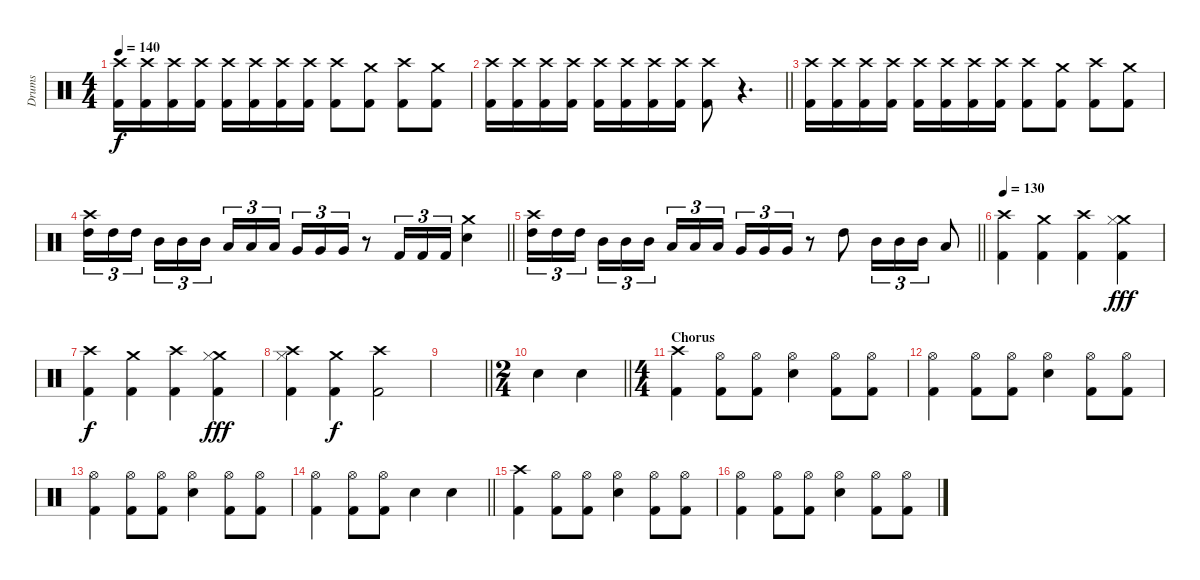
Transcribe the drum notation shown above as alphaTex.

\track ("Drums" "Drums") {instrument percussion}
\staff {score}
\articulation defaults
\ts (4 4)
\tempo 140
\clef neutral
\ks c
("Crash high (hit)" "Kick (hit) 2").16{dy f} ("Crash high (hit)" "Kick (hit) 2").16 ("Crash high (hit)" "Kick (hit) 2").16 ("Crash high (hit)" "Kick (hit) 2").16 ("Crash high (hit)" "Kick (hit) 2").16 ("Crash high (hit)" "Kick (hit) 2").16 ("Crash high (hit)" "Kick (hit) 2").16 ("Crash high (hit)" "Kick (hit) 2").16 ("Crash high (hit)" "Kick (hit) 2").8 ("Crash medium (hit)" "Kick (hit) 2").8 ("Crash high (hit)" "Kick (hit) 2").8 ("Crash medium (hit)" "Kick (hit) 2").8 |
\barLineRight lightlight
("Crash high (hit)" "Kick (hit) 2").16 ("Crash high (hit)" "Kick (hit) 2").16 ("Crash high (hit)" "Kick (hit) 2").16 ("Crash high (hit)" "Kick (hit) 2").16 ("Crash high (hit)" "Kick (hit) 2").16 ("Crash high (hit)" "Kick (hit) 2").16 ("Crash high (hit)" "Kick (hit) 2").16 ("Crash high (hit)" "Kick (hit) 2").16 ("Crash high (hit)" "Kick (hit) 2").8 r.4{d volume 0} |
("Crash high (hit)" "Kick (hit) 2").16{volume 16} ("Crash high (hit)" "Kick (hit) 2").16 ("Crash high (hit)" "Kick (hit) 2").16 ("Crash high (hit)" "Kick (hit) 2").16 ("Crash high (hit)" "Kick (hit) 2").16 ("Crash high (hit)" "Kick (hit) 2").16 ("Crash high (hit)" "Kick (hit) 2").16 ("Crash high (hit)" "Kick (hit) 2").16 ("Crash high (hit)" "Kick (hit) 2").8 ("Crash medium (hit)" "Kick (hit) 2").8 ("Crash high (hit)" "Kick (hit) 2").8 ("Crash medium (hit)" "Kick (hit) 2").8 |
\barLineRight lightlight
("Crash high (hit)" "High Tom (hit)").16{tu (3 2)} "High Tom (hit)".16{tu (3 2)} "High Tom (hit)".16{tu (3 2) beam splitsecondary} "Mid Tom (hit)".16{tu (3 2)} "Mid Tom (hit)".16{tu (3 2)} "Mid Tom (hit)".16{tu (3 2)} "Low Tom (hit)".16{tu (3 2)} "Low Tom (hit)".16{tu (3 2)} "Low Tom (hit)".16{tu (3 2) beam splitsecondary} "Very Low Tom (hit)".16{tu (3 2)} "Very Low Tom (hit)".16{tu (3 2)} "Very Low Tom (hit)".16{tu (3 2)} r.8 "Kick (hit) 2".16{tu (3 2)} "Kick (hit) 2".16{tu (3 2)} "Kick (hit) 2".16{tu (3 2)} ("Crash medium (hit)" "Snare (hit) 2").4 |
\barLineRight lightlight
("Crash high (hit)" "High Tom (hit)").16{tu (3 2)} "High Tom (hit)".16{tu (3 2)} "High Tom (hit)".16{tu (3 2) beam splitsecondary} "Mid Tom (hit)".16{tu (3 2)} "Mid Tom (hit)".16{tu (3 2)} "Mid Tom (hit)".16{tu (3 2)} "Low Tom (hit)".16{tu (3 2)} "Low Tom (hit)".16{tu (3 2)} "Low Tom (hit)".16{tu (3 2) beam splitsecondary} "Very Low Tom (hit)".16{tu (3 2)} "Very Low Tom (hit)".16{tu (3 2)} "Very Low Tom (hit)".16{tu (3 2)} r.8 "High Tom (hit)".8 "Mid Tom (hit)".16{tu (3 2)} "Mid Tom (hit)".16{tu (3 2)} "Mid Tom (hit)".16{tu (3 2)} "Low Tom (hit)".8 |
\tempo 130
("Crash high (hit)" "Kick (hit) 2").4 ("Crash medium (hit)" "Kick (hit) 2").4 ("Crash high (hit)" "Kick (hit) 2").4 ("Crash medium (hit)" "Hi-Hat (closed)" "Kick (hit) 2").4{dy fff} |
("Crash high (hit)" "Kick (hit) 2").4{dy f} ("Crash medium (hit)" "Kick (hit) 2").4 ("Crash high (hit)" "Kick (hit) 2").4 ("Crash medium (hit)" "Hi-Hat (closed)" "Kick (hit) 2").4{dy fff} |
("Crash high (hit)" "Hi-Hat (closed)" "Kick (hit) 2").4 ("Crash medium (hit)" "Kick (hit) 2").4{dy f} ("Crash high (hit)" "Kick (hit) 2").2 |
\barLineRight lightlight
|
\ts (2 4)
\barLineRight lightlight "Snare (hit) 2".4 "Snare (hit) 2".4
|
\ts (4 4)
\section ("" "Chorus")
("Crash high (hit)" "Kick (hit) 2").4 ("Hi-Hat (open)" "Kick (hit) 2").8 ("Hi-Hat (open)" "Kick (hit) 2").8 ("Hi-Hat (open)" "Snare (hit) 2").4 ("Hi-Hat (open)" "Kick (hit) 2").8 ("Hi-Hat (open)" "Kick (hit) 2").8 |
("Hi-Hat (open)" "Kick (hit) 2").4 ("Hi-Hat (open)" "Kick (hit) 2").8 ("Hi-Hat (open)" "Kick (hit) 2").8 ("Hi-Hat (open)" "Snare (hit) 2").4 ("Hi-Hat (open)" "Kick (hit) 2").8 ("Hi-Hat (open)" "Kick (hit) 2").8 |
("Hi-Hat (open)" "Kick (hit) 2").4 ("Hi-Hat (open)" "Kick (hit) 2").8 ("Hi-Hat (open)" "Kick (hit) 2").8 ("Hi-Hat (open)" "Snare (hit) 2").4 ("Hi-Hat (open)" "Kick (hit) 2").8 ("Hi-Hat (open)" "Kick (hit) 2").8 |
\barLineRight lightlight
("Hi-Hat (open)" "Kick (hit) 2").4 ("Hi-Hat (open)" "Kick (hit) 2").8 ("Hi-Hat (open)" "Kick (hit) 2").8 "Snare (hit) 2".4 "Snare (hit) 2".4 |
("Crash high (hit)" "Kick (hit) 2").4 ("Hi-Hat (open)" "Kick (hit) 2").8 ("Hi-Hat (open)" "Kick (hit) 2").8 ("Hi-Hat (open)" "Snare (hit) 2").4 ("Hi-Hat (open)" "Kick (hit) 2").8 ("Hi-Hat (open)" "Kick (hit) 2").8 |
("Hi-Hat (open)" "Kick (hit) 2").4 ("Hi-Hat (open)" "Kick (hit) 2").8 ("Hi-Hat (open)" "Kick (hit) 2").8 ("Hi-Hat (open)" "Snare (hit) 2").4 ("Hi-Hat (open)" "Kick (hit) 2").8 ("Hi-Hat (open)" "Kick (hit) 2").8
